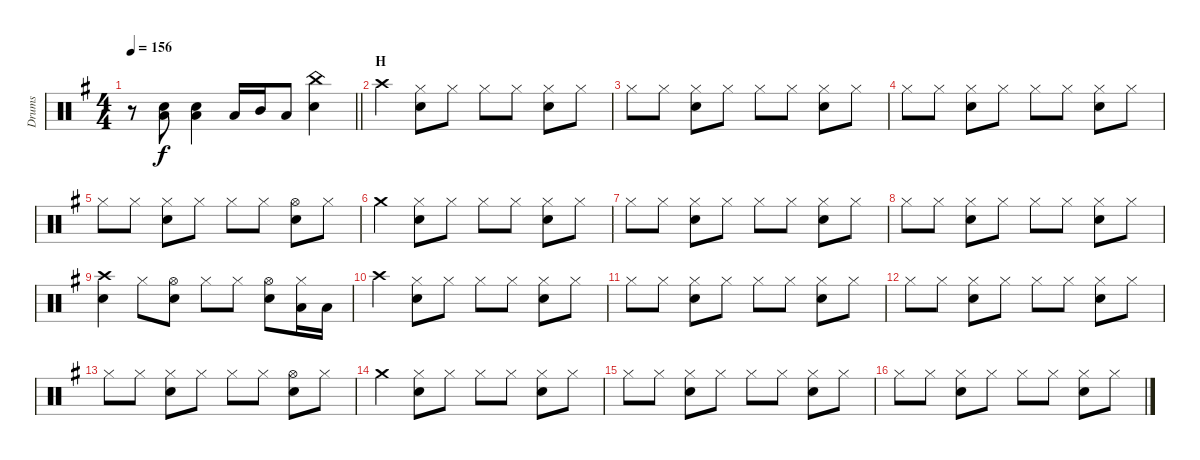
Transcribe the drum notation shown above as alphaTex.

\track ("Drums" "Drums") {instrument percussion}
\staff {score}
\articulation defaults
\ts (4 4)
\tempo 156
\clef neutral
\barLineRight lightlight
\ks g
r.8{dy f} ("Snare (hit) 2" "Low Tom (hit)").8 ("Snare (hit) 2" "Low Tom (hit)").4 "Low Tom (hit)".16 "Mid Tom (hit)".16 "Low Tom (hit)".8 ("China (hit)" "Snare (hit) 2").4 |
\section ("" "H")
"Crash high (hit)".4 ("Hi-Hat (closed)" "Snare (hit) 2").8 "Hi-Hat (closed)".8 "Hi-Hat (closed)".8 "Hi-Hat (closed)".8 ("Hi-Hat (closed)" "Snare (hit) 2").8 "Hi-Hat (closed)".8 |
"Hi-Hat (closed)".8 "Hi-Hat (closed)".8 ("Hi-Hat (closed)" "Snare (hit) 2").8 "Hi-Hat (closed)".8 "Hi-Hat (closed)".8 "Hi-Hat (closed)".8 ("Hi-Hat (closed)" "Snare (hit) 2").8 "Hi-Hat (closed)".8 |
"Hi-Hat (closed)".8 "Hi-Hat (closed)".8 ("Hi-Hat (closed)" "Snare (hit) 2").8 "Hi-Hat (closed)".8 "Hi-Hat (closed)".8 "Hi-Hat (closed)".8 ("Hi-Hat (closed)" "Snare (hit) 2").8 "Hi-Hat (closed)".8 |
"Hi-Hat (closed)".8 "Hi-Hat (closed)".8 ("Hi-Hat (closed)" "Snare (hit) 2").8 "Hi-Hat (closed)".8 "Hi-Hat (closed)".8 "Hi-Hat (closed)".8 ("Hi-Hat (open)" "Snare (hit) 2").8 "Hi-Hat (closed)".8 |
"Crash medium (hit)".4 ("Hi-Hat (closed)" "Snare (hit) 2").8 "Hi-Hat (closed)".8 "Hi-Hat (closed)".8 "Hi-Hat (closed)".8 ("Hi-Hat (closed)" "Snare (hit) 2").8 "Hi-Hat (closed)".8 |
"Hi-Hat (closed)".8 "Hi-Hat (closed)".8 ("Hi-Hat (closed)" "Snare (hit) 2").8 "Hi-Hat (closed)".8 "Hi-Hat (closed)".8 "Hi-Hat (closed)".8 ("Hi-Hat (closed)" "Snare (hit) 2").8 "Hi-Hat (closed)".8 |
"Hi-Hat (closed)".8 "Hi-Hat (closed)".8 ("Hi-Hat (closed)" "Snare (hit) 2").8 "Hi-Hat (closed)".8 "Hi-Hat (closed)".8 "Hi-Hat (closed)".8 ("Hi-Hat (closed)" "Snare (hit) 2").8 "Hi-Hat (closed)".8 |
("Crash high (hit)" "Snare (hit) 2").4 "Hi-Hat (closed)".8 ("Hi-Hat (open)" "Snare (hit) 2").8 "Hi-Hat (closed)".8 "Hi-Hat (closed)".8 ("Hi-Hat (open)" "Snare (hit) 2").8 ("Hi-Hat (closed)" "Low Tom (hit)").16 "Low Tom (hit)".16 |
"Crash high (hit)".4 ("Hi-Hat (closed)" "Snare (hit) 2").8 "Hi-Hat (closed)".8 "Hi-Hat (closed)".8 "Hi-Hat (closed)".8 ("Hi-Hat (closed)" "Snare (hit) 2").8 "Hi-Hat (closed)".8 |
"Hi-Hat (closed)".8 "Hi-Hat (closed)".8 ("Hi-Hat (closed)" "Snare (hit) 2").8 "Hi-Hat (closed)".8 "Hi-Hat (closed)".8 "Hi-Hat (closed)".8 ("Hi-Hat (closed)" "Snare (hit) 2").8 "Hi-Hat (closed)".8 |
"Hi-Hat (closed)".8 "Hi-Hat (closed)".8 ("Hi-Hat (closed)" "Snare (hit) 2").8 "Hi-Hat (closed)".8 "Hi-Hat (closed)".8 "Hi-Hat (closed)".8 ("Hi-Hat (closed)" "Snare (hit) 2").8 "Hi-Hat (closed)".8 |
"Hi-Hat (closed)".8 "Hi-Hat (closed)".8 ("Hi-Hat (closed)" "Snare (hit) 2").8 "Hi-Hat (closed)".8 "Hi-Hat (closed)".8 "Hi-Hat (closed)".8 ("Hi-Hat (open)" "Snare (hit) 2").8 "Hi-Hat (closed)".8 |
"Crash medium (hit)".4 ("Hi-Hat (closed)" "Snare (hit) 2").8 "Hi-Hat (closed)".8 "Hi-Hat (closed)".8 "Hi-Hat (closed)".8 ("Hi-Hat (closed)" "Snare (hit) 2").8 "Hi-Hat (closed)".8 |
"Hi-Hat (closed)".8 "Hi-Hat (closed)".8 ("Hi-Hat (closed)" "Snare (hit) 2").8 "Hi-Hat (closed)".8 "Hi-Hat (closed)".8 "Hi-Hat (closed)".8 ("Hi-Hat (closed)" "Snare (hit) 2").8 "Hi-Hat (closed)".8 |
"Hi-Hat (closed)".8 "Hi-Hat (closed)".8 ("Hi-Hat (closed)" "Snare (hit) 2").8 "Hi-Hat (closed)".8 "Hi-Hat (closed)".8 "Hi-Hat (closed)".8 ("Hi-Hat (closed)" "Snare (hit) 2").8 "Hi-Hat (closed)".8
